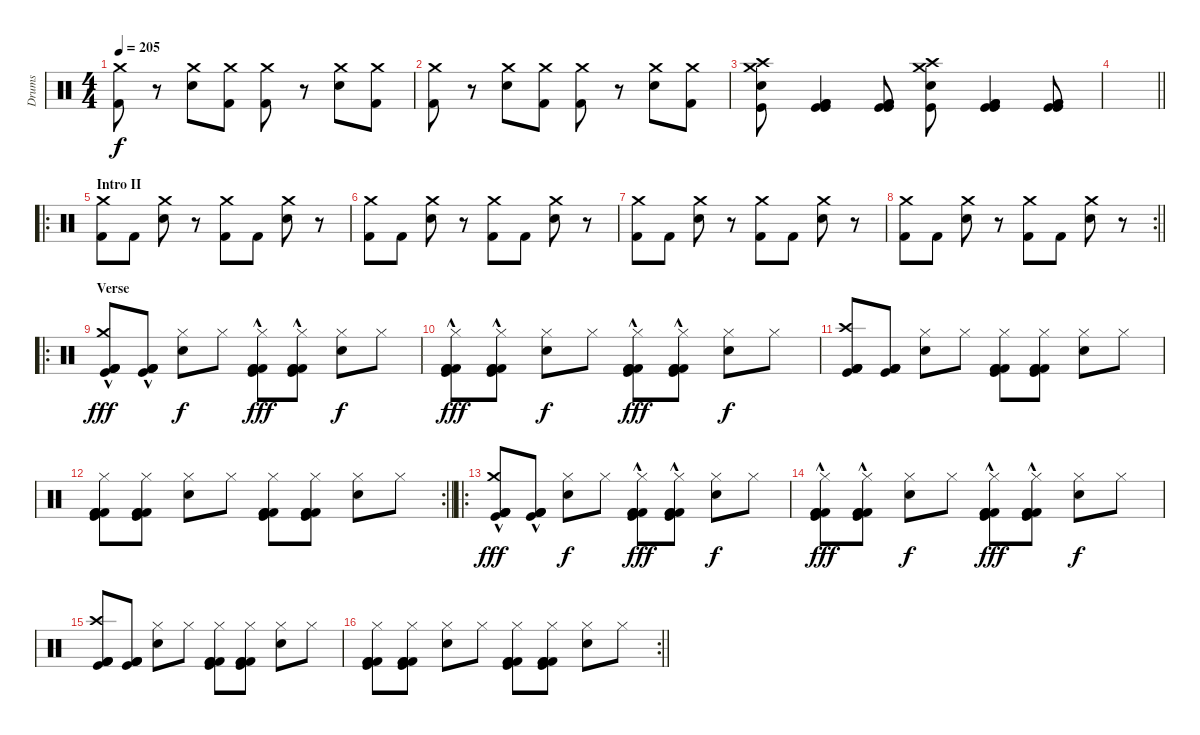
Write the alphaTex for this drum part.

\track ("Drums" "Drums") {instrument percussion}
\staff {score}
\articulation defaults
\ts (4 4)
\tempo 205
\clef neutral
\ks c
("Kick (hit) 2" "Crash medium (hit)").8{dy f} r.8 ("Snare (hit) 2" "Crash medium (hit)").8 ("Kick (hit) 2" "Crash medium (hit)").8 ("Kick (hit) 2" "Crash medium (hit)").8 r.8 ("Snare (hit) 2" "Crash medium (hit)").8 ("Kick (hit) 2" "Crash medium (hit)").8 |
("Kick (hit) 2" "Crash medium (hit)").8 r.8 ("Snare (hit) 2" "Crash medium (hit)").8 ("Kick (hit) 2" "Crash medium (hit)").8 ("Kick (hit) 2" "Crash medium (hit)").8 r.8 ("Snare (hit) 2" "Crash medium (hit)").8 ("Kick (hit) 2" "Crash medium (hit)").8 |
("Crash medium (hit)" "Crash high (hit)" "Electric Snare (hit)" "Kick (hit)").8 ("Kick (hit)" "Kick (hit)" "Kick (hit) 2" "Kick (hit) 2").4 ("Kick (hit)" "Kick (hit)" "Kick (hit) 2" "Kick (hit) 2").8 ("Crash medium (hit)" "Crash high (hit)" "Electric Snare (hit)" "Kick (hit)").8 ("Kick (hit)" "Kick (hit)" "Kick (hit) 2" "Kick (hit) 2").4 ("Kick (hit)" "Kick (hit)" "Kick (hit) 2" "Kick (hit) 2").8 |
\barLineRight lightlight
|
\ro
\section ("" "Intro II")
("Crash medium (hit)" "Kick (hit) 2").8 "Kick (hit) 2".8 ("Crash medium (hit)" "Electric Snare (hit)").8 r.8 ("Crash medium (hit)" "Kick (hit) 2").8 "Kick (hit) 2".8 ("Crash medium (hit)" "Electric Snare (hit)").8 r.8 |
("Crash medium (hit)" "Kick (hit) 2").8 "Kick (hit) 2".8 ("Crash medium (hit)" "Electric Snare (hit)").8 r.8 ("Crash medium (hit)" "Kick (hit) 2").8 "Kick (hit) 2".8 ("Crash medium (hit)" "Electric Snare (hit)").8 r.8 |
("Crash medium (hit)" "Kick (hit) 2").8 "Kick (hit) 2".8 ("Crash medium (hit)" "Electric Snare (hit)").8 r.8 ("Crash medium (hit)" "Kick (hit) 2").8 "Kick (hit) 2".8 ("Crash medium (hit)" "Electric Snare (hit)").8 r.8 |
\rc 2
\barLineRight lightlight
("Crash medium (hit)" "Kick (hit) 2").8 "Kick (hit) 2".8 ("Crash medium (hit)" "Electric Snare (hit)").8 r.8 ("Crash medium (hit)" "Kick (hit) 2").8 "Kick (hit) 2".8 ("Crash medium (hit)" "Electric Snare (hit)").8 r.8 |
\ro
\section ("" "Verse")
("Kick (hit) 2" "Kick (hit) 2" "Crash medium (hit)" "Kick (hit) 2"{hac} "Kick (hit)"{hac}).8{dy fff} ("Kick (hit) 2" "Kick (hit) 2" "Kick (hit) 2"{hac} "Kick (hit)"{hac}).8 ("Hi-Hat (closed)" "Electric Snare (hit)").8{dy f} "Hi-Hat (closed)".8 ("Kick (hit) 2" "Kick (hit) 2" "Hi-Hat (closed)" "Kick (hit)"{hac} "Kick (hit) 2"{hac}).8{dy fff} ("Kick (hit) 2" "Kick (hit) 2" "Hi-Hat (closed)" "Kick (hit)"{hac} "Kick (hit) 2"{hac}).8 ("Hi-Hat (closed)" "Electric Snare (hit)").8{dy f} "Hi-Hat (closed)".8 |
("Kick (hit) 2" "Kick (hit) 2" "Hi-Hat (closed)" "Kick (hit)"{hac} "Kick (hit) 2"{hac}).8{dy fff} ("Kick (hit) 2" "Kick (hit) 2" "Hi-Hat (closed)" "Kick (hit)"{hac} "Kick (hit) 2"{hac}).8 ("Hi-Hat (closed)" "Electric Snare (hit)").8{dy f} "Hi-Hat (closed)".8 ("Kick (hit) 2" "Kick (hit) 2" "Hi-Hat (closed)" "Kick (hit)"{hac} "Kick (hit) 2"{hac}).8{dy fff} ("Kick (hit) 2" "Kick (hit) 2" "Hi-Hat (closed)" "Kick (hit)"{hac} "Kick (hit) 2"{hac}).8 ("Hi-Hat (closed)" "Electric Snare (hit)").8{dy f} "Hi-Hat (closed)".8 |
("Kick (hit) 2" "Kick (hit) 2" "Crash high (hit)" "Kick (hit) 2" "Kick (hit)").8 ("Kick (hit) 2" "Kick (hit) 2" "Kick (hit) 2" "Kick (hit)").8 ("Hi-Hat (closed)" "Electric Snare (hit)").8 "Hi-Hat (closed)".8 ("Kick (hit) 2" "Kick (hit) 2" "Hi-Hat (closed)" "Kick (hit) 2" "Kick (hit)").8 ("Kick (hit) 2" "Kick (hit) 2" "Hi-Hat (closed)" "Kick (hit) 2" "Kick (hit)").8 ("Hi-Hat (closed)" "Electric Snare (hit)").8 "Hi-Hat (closed)".8 |
\rc 2
\barLineRight lightlight
("Kick (hit) 2" "Kick (hit) 2" "Hi-Hat (closed)" "Kick (hit) 2" "Kick (hit)").8 ("Kick (hit) 2" "Kick (hit) 2" "Hi-Hat (closed)" "Kick (hit) 2" "Kick (hit)").8 ("Hi-Hat (closed)" "Electric Snare (hit)").8 "Hi-Hat (closed)".8 ("Kick (hit) 2" "Kick (hit) 2" "Hi-Hat (closed)" "Kick (hit) 2" "Kick (hit)").8 ("Kick (hit) 2" "Kick (hit) 2" "Hi-Hat (closed)" "Kick (hit) 2" "Kick (hit)").8 ("Hi-Hat (closed)" "Electric Snare (hit)").8 "Hi-Hat (closed)".8 |
\ro
("Kick (hit) 2" "Kick (hit) 2" "Crash medium (hit)" "Kick (hit) 2"{hac} "Kick (hit)"{hac}).8{dy fff} ("Kick (hit) 2" "Kick (hit) 2" "Kick (hit) 2"{hac} "Kick (hit)"{hac}).8 ("Hi-Hat (closed)" "Electric Snare (hit)").8{dy f} "Hi-Hat (closed)".8 ("Kick (hit) 2" "Kick (hit) 2" "Hi-Hat (closed)" "Kick (hit)"{hac} "Kick (hit) 2"{hac}).8{dy fff} ("Kick (hit) 2" "Kick (hit) 2" "Hi-Hat (closed)" "Kick (hit)"{hac} "Kick (hit) 2"{hac}).8 ("Hi-Hat (closed)" "Electric Snare (hit)").8{dy f} "Hi-Hat (closed)".8 |
("Kick (hit) 2" "Kick (hit) 2" "Hi-Hat (closed)" "Kick (hit)"{hac} "Kick (hit) 2"{hac}).8{dy fff} ("Kick (hit) 2" "Kick (hit) 2" "Hi-Hat (closed)" "Kick (hit)"{hac} "Kick (hit) 2"{hac}).8 ("Hi-Hat (closed)" "Electric Snare (hit)").8{dy f} "Hi-Hat (closed)".8 ("Kick (hit) 2" "Kick (hit) 2" "Hi-Hat (closed)" "Kick (hit)"{hac} "Kick (hit) 2"{hac}).8{dy fff} ("Kick (hit) 2" "Kick (hit) 2" "Hi-Hat (closed)" "Kick (hit)"{hac} "Kick (hit) 2"{hac}).8 ("Hi-Hat (closed)" "Electric Snare (hit)").8{dy f} "Hi-Hat (closed)".8 |
("Kick (hit) 2" "Kick (hit) 2" "Crash high (hit)" "Kick (hit) 2" "Kick (hit)").8 ("Kick (hit) 2" "Kick (hit) 2" "Kick (hit) 2" "Kick (hit)").8 ("Hi-Hat (closed)" "Electric Snare (hit)").8 "Hi-Hat (closed)".8 ("Kick (hit) 2" "Kick (hit) 2" "Hi-Hat (closed)" "Kick (hit) 2" "Kick (hit)").8 ("Kick (hit) 2" "Kick (hit) 2" "Hi-Hat (closed)" "Kick (hit) 2" "Kick (hit)").8 ("Hi-Hat (closed)" "Electric Snare (hit)").8 "Hi-Hat (closed)".8 |
\rc 2
\barLineRight lightlight
("Kick (hit) 2" "Kick (hit) 2" "Hi-Hat (closed)" "Kick (hit) 2" "Kick (hit)").8 ("Kick (hit) 2" "Kick (hit) 2" "Hi-Hat (closed)" "Kick (hit) 2" "Kick (hit)").8 ("Hi-Hat (closed)" "Electric Snare (hit)").8 "Hi-Hat (closed)".8 ("Kick (hit) 2" "Kick (hit) 2" "Hi-Hat (closed)" "Kick (hit) 2" "Kick (hit)").8 ("Kick (hit) 2" "Kick (hit) 2" "Hi-Hat (closed)" "Kick (hit) 2" "Kick (hit)").8 ("Hi-Hat (closed)" "Electric Snare (hit)").8 "Hi-Hat (closed)".8
